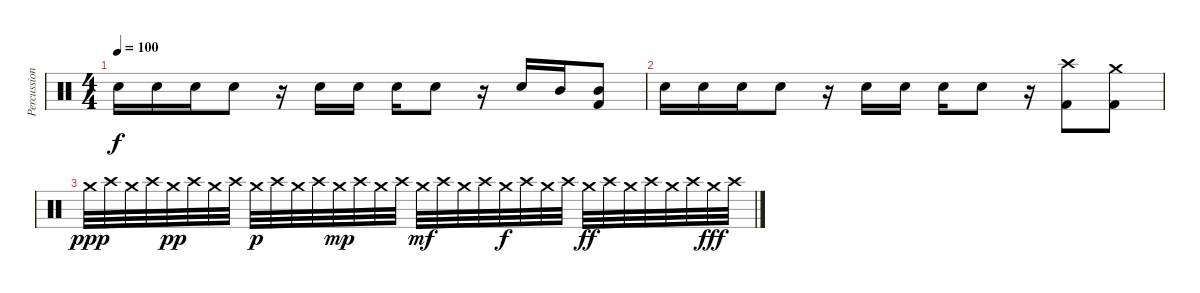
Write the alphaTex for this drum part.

\track ("Percussion" "Percussion") {instrument percussion}
\staff {score}
\articulation defaults
\ts (4 4)
\tempo 100
\clef neutral
\ks c "Electric Snare (hit)".16{dy f} "Electric Snare (hit)".16 "Electric Snare (hit)".16 "Electric Snare (hit)".8
r.16 "Electric Snare (hit)".16 "Electric Snare (hit)".16 "Electric Snare (hit)".16 "Electric Snare (hit)".8 r.16 "Electric Snare (hit)".16 "Mid Tom (hit)".16 ("Mid Tom (hit)" "Kick (hit) 2").8 |
"Electric Snare (hit)".16 "Electric Snare (hit)".16 "Electric Snare (hit)".16 "Electric Snare (hit)".8 r.16 "Electric Snare (hit)".16 "Electric Snare (hit)".16 "Electric Snare (hit)".16 "Electric Snare (hit)".8 r.16 ("Crash high (hit)" "Kick (hit) 2").8 ("Crash medium (hit)" "Kick (hit) 2").8 |
"Crash medium (hit)".32{dy ppp} "Crash high (hit)".32 "Crash medium (hit)".32 "Crash high (hit)".32 "Crash medium (hit)".32{dy pp} "Crash high (hit)".32 "Crash medium (hit)".32 "Crash high (hit)".32 "Crash medium (hit)".32{dy p} "Crash high (hit)".32 "Crash medium (hit)".32 "Crash high (hit)".32 "Crash medium (hit)".32{dy mp} "Crash high (hit)".32 "Crash medium (hit)".32 "Crash high (hit)".32 "Crash medium (hit)".32{dy mf} "Crash high (hit)".32 "Crash medium (hit)".32 "Crash high (hit)".32 "Crash medium (hit)".32{dy f} "Crash high (hit)".32 "Crash medium (hit)".32 "Crash high (hit)".32 "Crash medium (hit)".32{dy ff} "Crash high (hit)".32 "Crash medium (hit)".32 "Crash high (hit)".32 "Crash medium (hit)".32 "Crash high (hit)".32 "Crash medium (hit)".32{dy fff} "Crash high (hit)".32
